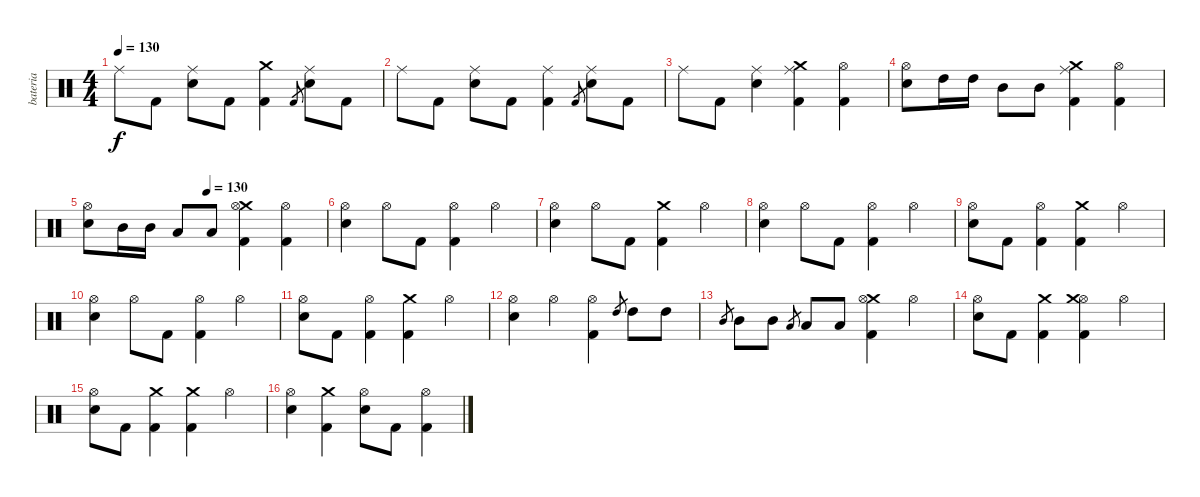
\track ("bateria" "bateria") {instrument percussion}
\staff {score}
\articulation defaults
\ts (4 4)
\tempo 130
\clef neutral
\ks c "Ride (middle)".8{dy f} "Kick (hit) 2".8
("Ride (middle)" "Snare (hit) 2").8 "Kick (hit) 2".8 ("Crash medium (hit)" "Kick (hit) 2").4 "Kick (hit) 2".8{gr} ("Ride (middle)" "Snare (hit) 2").8 "Kick (hit) 2".8 |
"Ride (middle)".8 "Kick (hit) 2".8 ("Ride (middle)" "Snare (hit) 2").8 "Kick (hit) 2".8 ("Ride (middle)" "Kick (hit) 2").4 "Kick (hit) 2".8{gr} ("Ride (middle)" "Snare (hit) 2").8 "Kick (hit) 2".8 |
"Ride (middle)".8 "Kick (hit) 2".8 ("Ride (middle)" "Snare (hit) 2").4 ("Crash medium (hit)" "Ride (middle)" "Kick (hit) 2").4 ("Hi-Hat (open)" "Kick (hit) 2").4 |
("Hi-Hat (open)" "Snare (hit) 2").8 "High Tom (hit)".16 "High Tom (hit)".16 "Mid Tom (hit)".8 "Mid Tom (hit)".8 ("Crash medium (hit)" "Ride (middle)" "Kick (hit) 2").4 ("Hi-Hat (open)" "Kick (hit) 2").4 |
\tempo (130 0.5)
("Hi-Hat (open)" "Snare (hit) 2").8 "Mid Tom (hit)".16 "Mid Tom (hit)".16 "Low Tom (hit)".8 "Low Tom (hit)".8 ("Crash medium (hit)" "Hi-Hat (open)" "Kick (hit) 2").4 ("Hi-Hat (open)" "Kick (hit) 2").4 |
("Hi-Hat (open)" "Snare (hit) 2").4 "Hi-Hat (open)".8 "Kick (hit) 2".8 ("Hi-Hat (open)" "Kick (hit) 2").4 "Hi-Hat (open)".4 |
("Hi-Hat (open)" "Snare (hit) 2").4 "Hi-Hat (open)".8 "Kick (hit) 2".8 ("Crash medium (hit)" "Kick (hit) 2").4 "Hi-Hat (open)".4 |
("Hi-Hat (open)" "Snare (hit) 2").4 "Hi-Hat (open)".8 "Kick (hit) 2".8 ("Hi-Hat (open)" "Kick (hit) 2").4 "Hi-Hat (open)".4 |
("Hi-Hat (open)" "Snare (hit) 2").8 "Kick (hit) 2".8 ("Hi-Hat (open)" "Kick (hit) 2").4 ("Crash medium (hit)" "Kick (hit) 2").4 "Hi-Hat (open)".4 |
("Hi-Hat (open)" "Snare (hit) 2").4 "Hi-Hat (open)".8 "Kick (hit) 2".8 ("Hi-Hat (open)" "Kick (hit) 2").4 "Hi-Hat (open)".4 |
("Hi-Hat (open)" "Snare (hit) 2").8 "Kick (hit) 2".8 ("Hi-Hat (open)" "Kick (hit) 2").4 ("Crash medium (hit)" "Kick (hit) 2").4 "Hi-Hat (open)".4 |
("Hi-Hat (open)" "Snare (hit) 2").4 "Hi-Hat (open)".4 ("Hi-Hat (open)" "Kick (hit) 2").4 "High Tom (hit)".8{gr} "High Tom (hit)".8 "High Tom (hit)".8 |
"Mid Tom (hit)".8{gr} "Mid Tom (hit)".8 "Mid Tom (hit)".8 "Low Tom (hit)".8{gr} "Low Tom (hit)".8 "Low Tom (hit)".8 ("Crash medium (hit)" "Hi-Hat (open)" "Kick (hit) 2").4 "Hi-Hat (open)".4 |
("Hi-Hat (open)" "Snare (hit) 2").8 "Kick (hit) 2".8 ("Crash medium (hit)" "Kick (hit) 2").4 ("Hi-Hat (open)" "Crash medium (hit)" "Kick (hit) 2").4 "Hi-Hat (open)".4 |
("Hi-Hat (open)" "Snare (hit) 2").8 "Kick (hit) 2".8 ("Crash medium (hit)" "Kick (hit) 2").4 ("Crash medium (hit)" "Kick (hit) 2").4 "Hi-Hat (open)".4 |
("Hi-Hat (open)" "Snare (hit) 2").4 ("Crash medium (hit)" "Kick (hit) 2").4 ("Hi-Hat (open)" "Snare (hit) 2").8 "Kick (hit) 2".8 ("Hi-Hat (open)" "Kick (hit) 2").4
